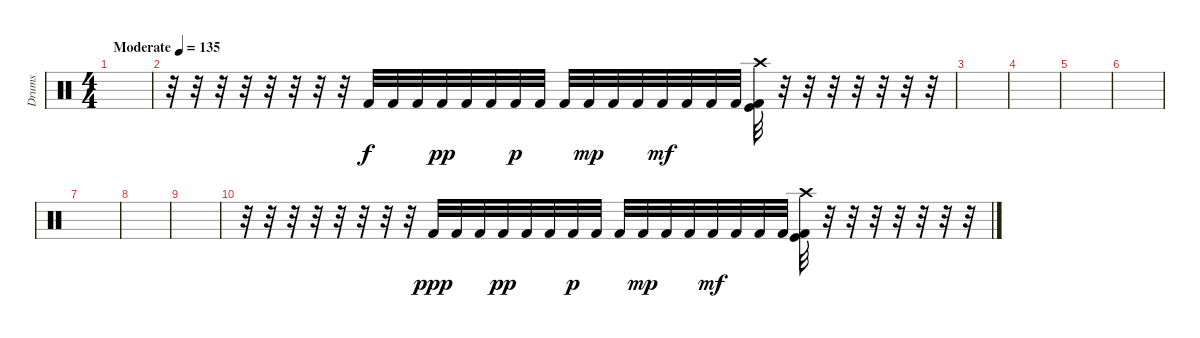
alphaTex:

\track ("Drums" "Drums") {instrument percussion bank 24}
\staff
\articulation defaults
\ts (4 4)
\tempo (135 "Moderate")
\clef neutral
\ks c
|
r.32 r.32 r.32 r.32 r.32 r.32 r.32 r.32 "Kick (hit) 2".32 "Kick (hit) 2".32 "Kick (hit) 2".32 "Kick (hit) 2".32{dy pp} "Kick (hit) 2".32 "Kick (hit) 2".32 "Kick (hit) 2".32{dy p} "Kick (hit) 2".32 "Kick (hit) 2".32 "Kick (hit) 2".32{dy mp} "Kick (hit) 2".32 "Kick (hit) 2".32 "Kick (hit) 2".32{dy mf} "Kick (hit) 2".32 "Kick (hit) 2".32 "Kick (hit) 2".32 ("Kick (hit)" "Kick (hit) 2" "Crash high (hit)").32 r.32 r.32 r.32 r.32 r.32 r.32 r.32 |
|
|
|
|
|
|
|
r.32 r.32 r.32 r.32 r.32 r.32 r.32 r.32 "Kick (hit) 2".32{dy ppp} "Kick (hit) 2".32 "Kick (hit) 2".32 "Kick (hit) 2".32{dy pp} "Kick (hit) 2".32 "Kick (hit) 2".32 "Kick (hit) 2".32{dy p} "Kick (hit) 2".32 "Kick (hit) 2".32 "Kick (hit) 2".32{dy mp} "Kick (hit) 2".32 "Kick (hit) 2".32 "Kick (hit) 2".32{dy mf} "Kick (hit) 2".32 "Kick (hit) 2".32 "Kick (hit) 2".32 ("Kick (hit)" "Kick (hit) 2" "Crash high (hit)").32 r.32 r.32 r.32 r.32 r.32 r.32 r.32
